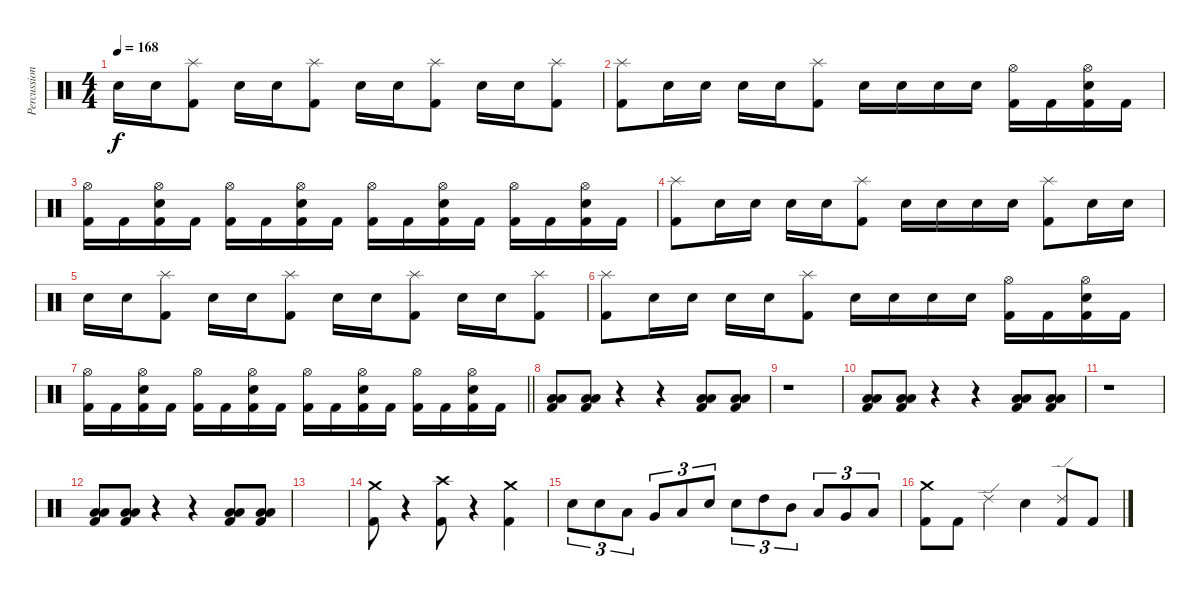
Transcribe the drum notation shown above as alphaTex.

\track ("Percussions" "Percussion") {instrument percussion}
\staff {score}
\articulation defaults
\ts (4 4)
\tempo 168
\clef neutral
\ks c "Snare (hit) 2".16{dy f} "Snare (hit) 2".16
("Splash (hit)" "Kick (hit) 2").8 "Snare (hit) 2".16 "Snare (hit) 2".16 ("Splash (hit)" "Kick (hit) 2").8 "Snare (hit) 2".16 "Snare (hit) 2".16 ("Splash (hit)" "Kick (hit) 2").8 "Snare (hit) 2".16 "Snare (hit) 2".16 ("Splash (hit)" "Kick (hit) 2").8 |
("Splash (hit)" "Kick (hit) 2").8 "Snare (hit) 2".16 "Snare (hit) 2".16 "Snare (hit) 2".16 "Snare (hit) 2".16 ("Splash (hit)" "Kick (hit) 2").8 "Snare (hit) 2".16 "Snare (hit) 2".16 "Snare (hit) 2".16 "Snare (hit) 2".16 ("Hi-Hat (open)" "Kick (hit) 2").16 "Kick (hit) 2".16 ("Hi-Hat (open)" "Snare (hit) 2" "Kick (hit) 2").16 "Kick (hit) 2".16 |
("Hi-Hat (open)" "Kick (hit) 2").16 "Kick (hit) 2".16 ("Hi-Hat (open)" "Snare (hit) 2" "Kick (hit) 2").16 "Kick (hit) 2".16 ("Hi-Hat (open)" "Kick (hit) 2").16 "Kick (hit) 2".16 ("Hi-Hat (open)" "Snare (hit) 2" "Kick (hit) 2").16 "Kick (hit) 2".16 ("Hi-Hat (open)" "Kick (hit) 2").16 "Kick (hit) 2".16 ("Hi-Hat (open)" "Snare (hit) 2" "Kick (hit) 2").16 "Kick (hit) 2".16 ("Hi-Hat (open)" "Kick (hit) 2").16 "Kick (hit) 2".16 ("Hi-Hat (open)" "Snare (hit) 2" "Kick (hit) 2").16 "Kick (hit) 2".16 |
("Splash (hit)" "Kick (hit) 2").8 "Snare (hit) 2".16 "Snare (hit) 2".16 "Snare (hit) 2".16 "Snare (hit) 2".16 ("Splash (hit)" "Kick (hit) 2").8 "Snare (hit) 2".16 "Snare (hit) 2".16 "Snare (hit) 2".16 "Snare (hit) 2".16 ("Splash (hit)" "Kick (hit) 2").8 "Snare (hit) 2".16 "Snare (hit) 2".16 |
"Snare (hit) 2".16 "Snare (hit) 2".16 ("Splash (hit)" "Kick (hit) 2").8 "Snare (hit) 2".16 "Snare (hit) 2".16 ("Splash (hit)" "Kick (hit) 2").8 "Snare (hit) 2".16 "Snare (hit) 2".16 ("Splash (hit)" "Kick (hit) 2").8 "Snare (hit) 2".16 "Snare (hit) 2".16 ("Splash (hit)" "Kick (hit) 2").8 |
("Splash (hit)" "Kick (hit) 2").8 "Snare (hit) 2".16 "Snare (hit) 2".16 "Snare (hit) 2".16 "Snare (hit) 2".16 ("Splash (hit)" "Kick (hit) 2").8 "Snare (hit) 2".16 "Snare (hit) 2".16 "Snare (hit) 2".16 "Snare (hit) 2".16 ("Hi-Hat (open)" "Kick (hit) 2").16 "Kick (hit) 2".16 ("Hi-Hat (open)" "Snare (hit) 2" "Kick (hit) 2").16 "Kick (hit) 2".16 |
\barLineRight lightlight
("Hi-Hat (open)" "Kick (hit) 2").16 "Kick (hit) 2".16 ("Hi-Hat (open)" "Snare (hit) 2" "Kick (hit) 2").16 "Kick (hit) 2".16 ("Hi-Hat (open)" "Kick (hit) 2").16 "Kick (hit) 2".16 ("Hi-Hat (open)" "Snare (hit) 2" "Kick (hit) 2").16 "Kick (hit) 2".16 ("Hi-Hat (open)" "Kick (hit) 2").16 "Kick (hit) 2".16 ("Hi-Hat (open)" "Snare (hit) 2" "Kick (hit) 2").16 "Kick (hit) 2".16 ("Hi-Hat (open)" "Kick (hit) 2").16 "Kick (hit) 2".16 ("Hi-Hat (open)" "Snare (hit) 2" "Kick (hit) 2").16 "Kick (hit) 2".16 |
("Low Tom (hit)" "Low Floor Tom (hit)" "Kick (hit) 2").8 ("Low Tom (hit)" "Low Floor Tom (hit)" "Kick (hit) 2").8 r.4 r.4 ("Low Tom (hit)" "Low Floor Tom (hit)" "Kick (hit) 2").8 ("Low Tom (hit)" "Low Floor Tom (hit)" "Kick (hit) 2").8 |
r.1 |
("Low Tom (hit)" "Low Floor Tom (hit)" "Kick (hit) 2").8 ("Low Tom (hit)" "Low Floor Tom (hit)" "Kick (hit) 2").8 r.4 r.4 ("Low Tom (hit)" "Low Floor Tom (hit)" "Kick (hit) 2").8 ("Low Tom (hit)" "Low Floor Tom (hit)" "Kick (hit) 2").8 |
r.1 |
("Low Tom (hit)" "Low Floor Tom (hit)" "Kick (hit) 2").8 ("Low Tom (hit)" "Low Floor Tom (hit)" "Kick (hit) 2").8 r.4 r.4 ("Low Tom (hit)" "Low Floor Tom (hit)" "Kick (hit) 2").8 ("Low Tom (hit)" "Low Floor Tom (hit)" "Kick (hit) 2").8 |
|
("Crash medium (hit)" "Kick (hit) 2").8 r.4 ("Crash high (hit)" "Kick (hit) 2").8 r.4 ("Crash medium (hit)" "Kick (hit) 2").4 |
"Snare (hit) 2".8{tu (3 2)} "Snare (hit) 2".8{tu (3 2)} "Low Tom (hit)".8{tu (3 2)} "Very Low Tom (hit)".8{tu (3 2)} "Low Floor Tom (hit)".8{tu (3 2)} "Snare (hit) 2".8{tu (3 2)} "Snare (hit) 2".8{tu (3 2)} "High Tom (hit)".8{tu (3 2)} "Mid Tom (hit)".8{tu (3 2)} "Low Tom (hit)".8{tu (3 2)} "Very Low Tom (hit)".8{tu (3 2)} "Low Floor Tom (hit)".8{tu (3 2)} |
("Crash medium (hit)" "Kick (hit) 2").8 "Kick (hit) 2".8 "Ride (edge) 2".4 "Snare (hit) 2".4 ("Ride (edge) 2" "Kick (hit) 2").8 "Kick (hit) 2".8
